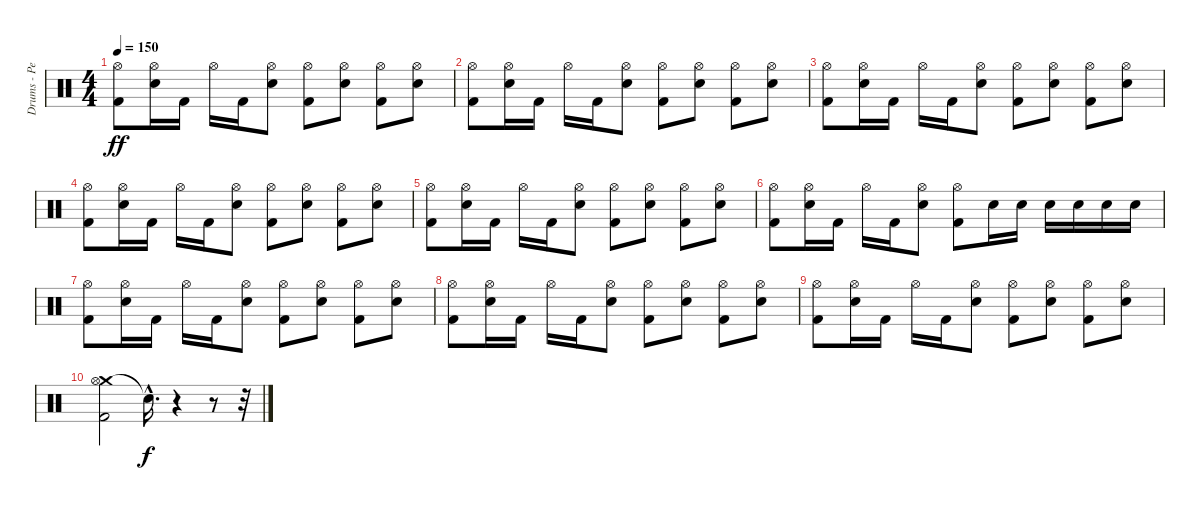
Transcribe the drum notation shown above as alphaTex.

\track ("Drums - Pete Finestone" "Drums - Pe") {instrument percussion}
\staff {score}
\articulation defaults
\ts (4 4)
\tempo 150
\clef neutral
\ks c
("Kick (hit) 2" "Hi-Hat (open)").8{dy ff} ("Electric Snare (hit)" "Hi-Hat (open)").16 "Kick (hit) 2".16 "Hi-Hat (open)".16 "Kick (hit) 2".16 ("Electric Snare (hit)" "Hi-Hat (open)").8 ("Kick (hit) 2" "Hi-Hat (open)").8 ("Electric Snare (hit)" "Hi-Hat (open)").8 ("Kick (hit) 2" "Hi-Hat (open)").8 ("Electric Snare (hit)" "Hi-Hat (open)").8 |
("Kick (hit) 2" "Hi-Hat (open)").8 ("Electric Snare (hit)" "Hi-Hat (open)").16 "Kick (hit) 2".16 "Hi-Hat (open)".16 "Kick (hit) 2".16 ("Electric Snare (hit)" "Hi-Hat (open)").8 ("Kick (hit) 2" "Hi-Hat (open)").8 ("Electric Snare (hit)" "Hi-Hat (open)").8 ("Kick (hit) 2" "Hi-Hat (open)").8 ("Electric Snare (hit)" "Hi-Hat (open)").8 |
("Kick (hit) 2" "Hi-Hat (open)").8 ("Electric Snare (hit)" "Hi-Hat (open)").16 "Kick (hit) 2".16 "Hi-Hat (open)".16 "Kick (hit) 2".16 ("Electric Snare (hit)" "Hi-Hat (open)").8 ("Kick (hit) 2" "Hi-Hat (open)").8 ("Electric Snare (hit)" "Hi-Hat (open)").8 ("Kick (hit) 2" "Hi-Hat (open)").8 ("Electric Snare (hit)" "Hi-Hat (open)").8 |
("Kick (hit) 2" "Hi-Hat (open)").8 ("Electric Snare (hit)" "Hi-Hat (open)").16 "Kick (hit) 2".16 "Hi-Hat (open)".16 "Kick (hit) 2".16 ("Electric Snare (hit)" "Hi-Hat (open)").8 ("Kick (hit) 2" "Hi-Hat (open)").8 ("Electric Snare (hit)" "Hi-Hat (open)").8 ("Kick (hit) 2" "Hi-Hat (open)").8 ("Electric Snare (hit)" "Hi-Hat (open)").8 |
("Kick (hit) 2" "Hi-Hat (open)").8 ("Electric Snare (hit)" "Hi-Hat (open)").16 "Kick (hit) 2".16 "Hi-Hat (open)".16 "Kick (hit) 2".16 ("Electric Snare (hit)" "Hi-Hat (open)").8 ("Kick (hit) 2" "Hi-Hat (open)").8 ("Electric Snare (hit)" "Hi-Hat (open)").8 ("Kick (hit) 2" "Hi-Hat (open)").8 ("Electric Snare (hit)" "Hi-Hat (open)").8 |
("Kick (hit) 2" "Hi-Hat (open)").8 ("Electric Snare (hit)" "Hi-Hat (open)").16 "Kick (hit) 2".16 "Hi-Hat (open)".16 "Kick (hit) 2".16 ("Electric Snare (hit)" "Hi-Hat (open)").8 ("Kick (hit) 2" "Hi-Hat (open)").8 "Electric Snare (hit)".16 "Electric Snare (hit)".16 "Electric Snare (hit)".16 "Electric Snare (hit)".16 "Electric Snare (hit)".16 "Electric Snare (hit)".16 |
("Kick (hit) 2" "Hi-Hat (open)").8 ("Electric Snare (hit)" "Hi-Hat (open)").16 "Kick (hit) 2".16 "Hi-Hat (open)".16 "Kick (hit) 2".16 ("Electric Snare (hit)" "Hi-Hat (open)").8 ("Kick (hit) 2" "Hi-Hat (open)").8 ("Electric Snare (hit)" "Hi-Hat (open)").8 ("Kick (hit) 2" "Hi-Hat (open)").8 ("Electric Snare (hit)" "Hi-Hat (open)").8 |
("Kick (hit) 2" "Hi-Hat (open)").8 ("Electric Snare (hit)" "Hi-Hat (open)").16 "Kick (hit) 2".16 "Hi-Hat (open)".16 "Kick (hit) 2".16 ("Electric Snare (hit)" "Hi-Hat (open)").8 ("Kick (hit) 2" "Hi-Hat (open)").8 ("Electric Snare (hit)" "Hi-Hat (open)").8 ("Kick (hit) 2" "Hi-Hat (open)").8 ("Electric Snare (hit)" "Hi-Hat (open)").8 |
("Kick (hit) 2" "Hi-Hat (open)").8 ("Electric Snare (hit)" "Hi-Hat (open)").16 "Kick (hit) 2".16 "Hi-Hat (open)".16 "Kick (hit) 2".16 ("Electric Snare (hit)" "Hi-Hat (open)").8 ("Kick (hit) 2" "Hi-Hat (open)").8 ("Electric Snare (hit)" "Hi-Hat (open)").8 ("Kick (hit) 2" "Hi-Hat (open)").8 ("Electric Snare (hit)" "Hi-Hat (open)").8 |
("Crash medium (hit)" "Kick (hit) 2" "Hi-Hat (open)").2 "Snare (hit)"{hac t}.16{d dy f} r.4 r.8 r.32
